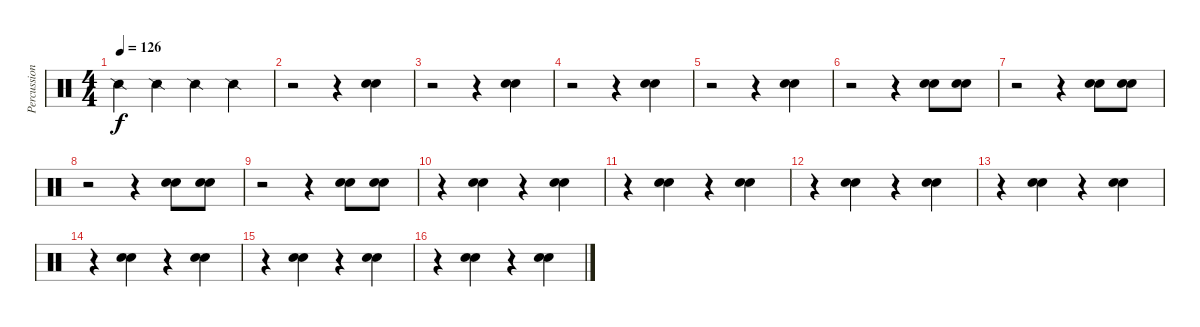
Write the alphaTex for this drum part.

\track ("Percussion" "Percussion") {instrument percussion}
\staff {score}
\articulation defaults
\ts (4 4)
\tempo 126
\clef neutral
\ks c "Snare (side stick) 2".4{dy f} "Snare (side stick) 2".4 "Snare (side stick) 2".4 "Snare (side stick) 2".4
|
r.2 r.4 ("Electric Snare (hit)" "Snare (hit) 2").4 |
r.2 r.4 ("Electric Snare (hit)" "Snare (hit) 2").4 |
r.2 r.4 ("Electric Snare (hit)" "Snare (hit) 2").4 |
r.2 r.4 ("Electric Snare (hit)" "Snare (hit) 2").4 |
r.2 r.4 ("Electric Snare (hit)" "Snare (hit) 2").8 ("Electric Snare (hit)" "Snare (hit) 2").8 |
r.2 r.4 ("Electric Snare (hit)" "Snare (hit) 2").8 ("Electric Snare (hit)" "Snare (hit) 2").8 |
r.2 r.4 ("Electric Snare (hit)" "Snare (hit) 2").8 ("Electric Snare (hit)" "Snare (hit) 2").8 |
r.2 r.4 ("Electric Snare (hit)" "Snare (hit) 2").8 ("Electric Snare (hit)" "Snare (hit) 2").8 |
r.4 ("Electric Snare (hit)" "Snare (hit) 2").4 r.4 ("Electric Snare (hit)" "Snare (hit) 2").4 |
r.4 ("Electric Snare (hit)" "Snare (hit) 2").4 r.4 ("Electric Snare (hit)" "Snare (hit) 2").4 |
r.4 ("Electric Snare (hit)" "Snare (hit) 2").4 r.4 ("Electric Snare (hit)" "Snare (hit) 2").4 |
r.4 ("Electric Snare (hit)" "Snare (hit) 2").4 r.4 ("Electric Snare (hit)" "Snare (hit) 2").4 |
r.4 ("Electric Snare (hit)" "Snare (hit) 2").4 r.4 ("Electric Snare (hit)" "Snare (hit) 2").4 |
r.4 ("Electric Snare (hit)" "Snare (hit) 2").4 r.4 ("Electric Snare (hit)" "Snare (hit) 2").4 |
r.4 ("Electric Snare (hit)" "Snare (hit) 2").4 r.4 ("Electric Snare (hit)" "Snare (hit) 2").4
